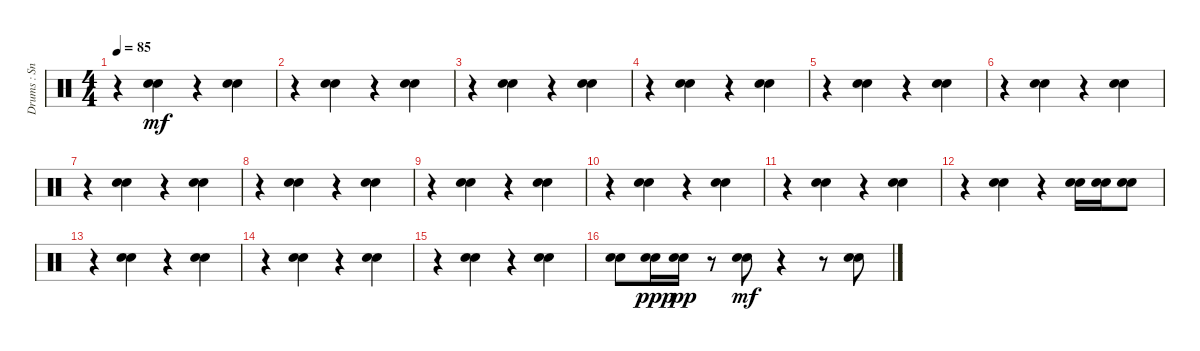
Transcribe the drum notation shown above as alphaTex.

\track ("Drums : Snare" "Drums : Sn") {instrument percussion}
\staff {score}
\articulation defaults
\ts (4 4)
\tempo 85
\clef neutral
\ks c
r.4{dy mf} ("Electric Snare (hit)" "Snare (hit) 2").4 r.4 ("Electric Snare (hit)" "Snare (hit) 2").4 |
r.4 ("Electric Snare (hit)" "Snare (hit) 2").4 r.4 ("Electric Snare (hit)" "Snare (hit) 2").4 |
r.4 ("Electric Snare (hit)" "Snare (hit) 2").4 r.4 ("Electric Snare (hit)" "Snare (hit) 2").4 |
r.4 ("Electric Snare (hit)" "Snare (hit) 2").4 r.4 ("Electric Snare (hit)" "Snare (hit) 2").4 |
r.4 ("Electric Snare (hit)" "Snare (hit) 2").4 r.4 ("Electric Snare (hit)" "Snare (hit) 2").4 |
r.4 ("Electric Snare (hit)" "Snare (hit) 2").4 r.4 ("Electric Snare (hit)" "Snare (hit) 2").4 |
r.4 ("Electric Snare (hit)" "Snare (hit) 2").4 r.4 ("Electric Snare (hit)" "Snare (hit) 2").4 |
r.4 ("Electric Snare (hit)" "Snare (hit) 2").4 r.4 ("Electric Snare (hit)" "Snare (hit) 2").4 |
r.4 ("Electric Snare (hit)" "Snare (hit) 2").4 r.4 ("Electric Snare (hit)" "Snare (hit) 2").4 |
r.4 ("Electric Snare (hit)" "Snare (hit) 2").4 r.4 ("Electric Snare (hit)" "Snare (hit) 2").4 |
r.4 ("Electric Snare (hit)" "Snare (hit) 2").4 r.4 ("Electric Snare (hit)" "Snare (hit) 2").4 |
r.4 ("Electric Snare (hit)" "Snare (hit) 2").4 r.4 ("Electric Snare (hit)" "Snare (hit) 2").16 ("Electric Snare (hit)" "Snare (hit) 2").16 ("Electric Snare (hit)" "Snare (hit) 2").8 |
r.4 ("Electric Snare (hit)" "Snare (hit) 2").4 r.4 ("Electric Snare (hit)" "Snare (hit) 2").4 |
r.4 ("Electric Snare (hit)" "Snare (hit) 2").4 r.4 ("Electric Snare (hit)" "Snare (hit) 2").4 |
r.4 ("Electric Snare (hit)" "Snare (hit) 2").4 r.4 ("Electric Snare (hit)" "Snare (hit) 2").4 |
("Electric Snare (hit)" "Snare (hit) 2").8 ("Electric Snare (hit)" "Snare (hit) 2").16{dy ppp} ("Electric Snare (hit)" "Snare (hit) 2").16{dy pp} r.8 ("Electric Snare (hit)" "Snare (hit) 2").8{dy mf} r.4 r.8 ("Electric Snare (hit)" "Snare (hit) 2").8
